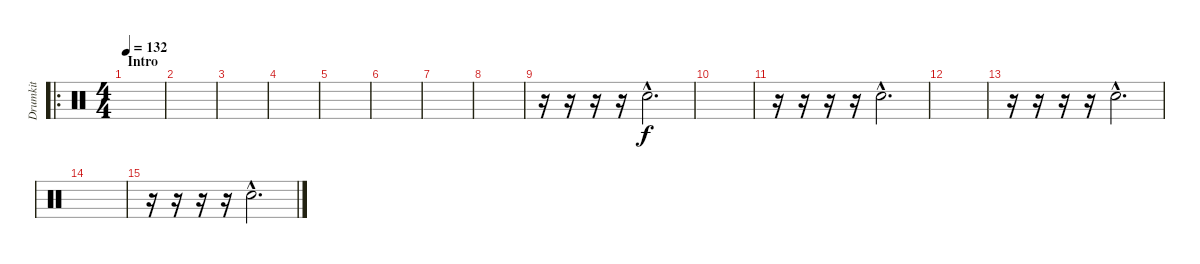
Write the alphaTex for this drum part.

\track ("Drumkit" "Drumkit") {instrument percussion}
\staff {score}
\articulation defaults
\ro
\ts (4 4)
\section ("" "Intro")
\tempo 132
\clef neutral
\ks c
|
|
|
|
|
|
|
|
r.16 r.16 r.16 r.16 "Snare (hit) 2"{hac}.2{d} |
|
r.16 r.16 r.16 r.16 "Snare (hit) 2"{hac}.2{d} |
|
r.16 r.16 r.16 r.16 "Snare (hit) 2"{hac}.2{d} |
|
r.16 r.16 r.16 r.16 "Snare (hit) 2"{hac}.2{d}
